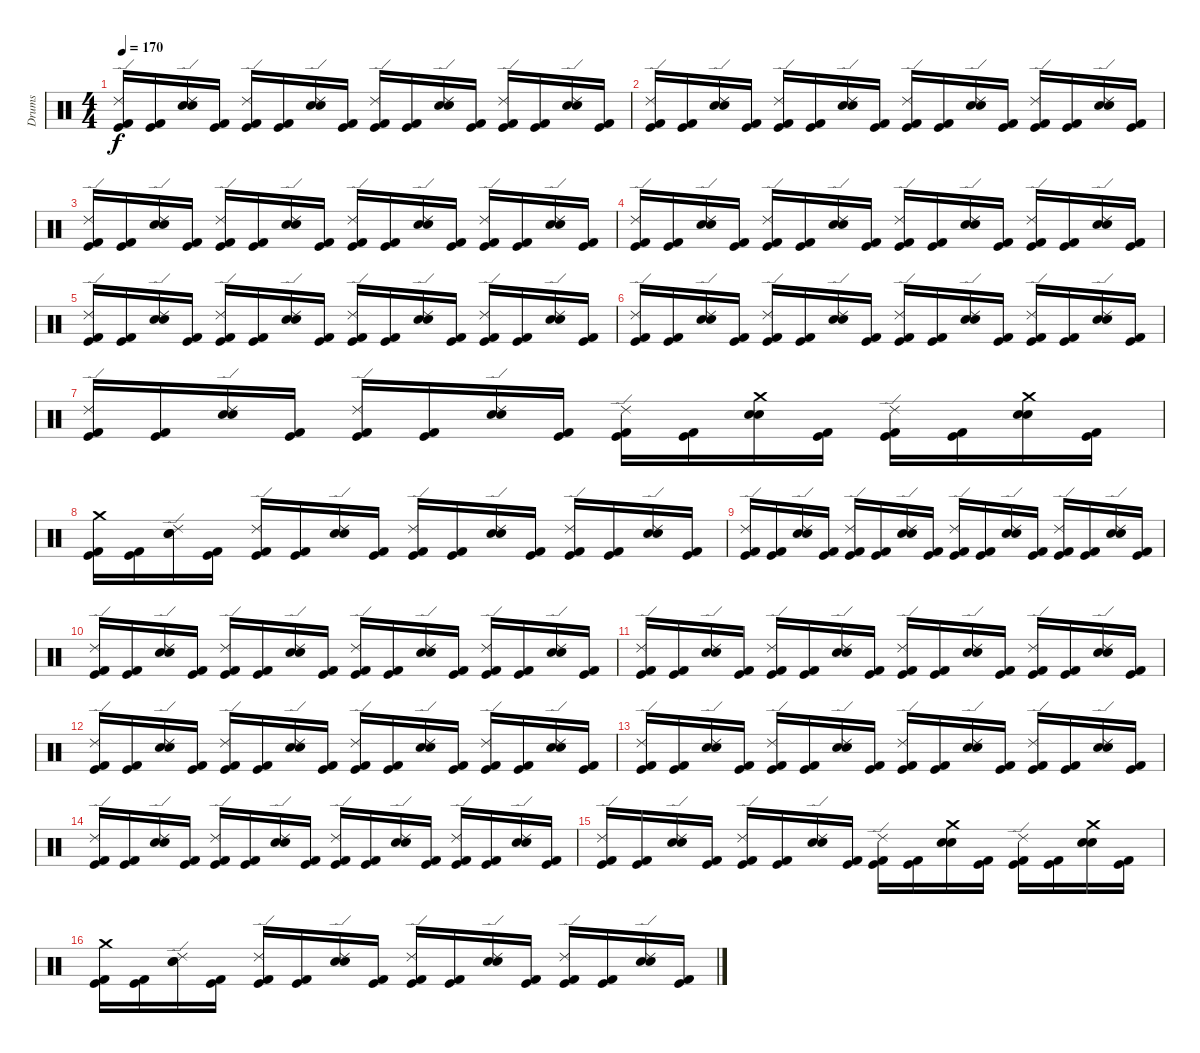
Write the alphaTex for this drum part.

\track ("Drums" "Drums") {instrument percussion}
\staff {score}
\articulation defaults
\ts (4 4)
\tempo 170
\clef neutral
\ks c
("Ride (edge) 2" "Kick (hit) 2" "Kick (hit)").16{dy f} ("Kick (hit) 2" "Kick (hit)").16 ("Electric Snare (hit)" "Snare (hit) 2" "Ride (edge) 2").16 ("Kick (hit) 2" "Kick (hit)").16 ("Ride (edge) 2" "Kick (hit) 2" "Kick (hit)").16 ("Kick (hit) 2" "Kick (hit)").16 ("Electric Snare (hit)" "Snare (hit) 2" "Ride (edge) 2").16 ("Kick (hit) 2" "Kick (hit)").16 ("Ride (edge) 2" "Kick (hit) 2" "Kick (hit)").16 ("Kick (hit) 2" "Kick (hit)").16 ("Electric Snare (hit)" "Snare (hit) 2" "Ride (edge) 2").16 ("Kick (hit) 2" "Kick (hit)").16 ("Ride (edge) 2" "Kick (hit) 2" "Kick (hit)").16 ("Kick (hit) 2" "Kick (hit)").16 ("Electric Snare (hit)" "Snare (hit) 2" "Ride (edge) 2").16 ("Kick (hit) 2" "Kick (hit)").16 |
("Ride (edge) 2" "Kick (hit) 2" "Kick (hit)").16 ("Kick (hit) 2" "Kick (hit)").16 ("Electric Snare (hit)" "Snare (hit) 2" "Ride (edge) 2").16 ("Kick (hit) 2" "Kick (hit)").16 ("Ride (edge) 2" "Kick (hit) 2" "Kick (hit)").16 ("Kick (hit) 2" "Kick (hit)").16 ("Electric Snare (hit)" "Snare (hit) 2" "Ride (edge) 2").16 ("Kick (hit) 2" "Kick (hit)").16 ("Ride (edge) 2" "Kick (hit) 2" "Kick (hit)").16 ("Kick (hit) 2" "Kick (hit)").16 ("Electric Snare (hit)" "Snare (hit) 2" "Ride (edge) 2").16 ("Kick (hit) 2" "Kick (hit)").16 ("Ride (edge) 2" "Kick (hit) 2" "Kick (hit)").16 ("Kick (hit) 2" "Kick (hit)").16 ("Electric Snare (hit)" "Snare (hit) 2" "Ride (edge) 2").16 ("Kick (hit) 2" "Kick (hit)").16 |
("Ride (edge) 2" "Kick (hit) 2" "Kick (hit)").16 ("Kick (hit) 2" "Kick (hit)").16 ("Electric Snare (hit)" "Snare (hit) 2" "Ride (edge) 2").16 ("Kick (hit) 2" "Kick (hit)").16 ("Ride (edge) 2" "Kick (hit) 2" "Kick (hit)").16 ("Kick (hit) 2" "Kick (hit)").16 ("Electric Snare (hit)" "Snare (hit) 2" "Ride (edge) 2").16 ("Kick (hit) 2" "Kick (hit)").16 ("Ride (edge) 2" "Kick (hit) 2" "Kick (hit)").16 ("Kick (hit) 2" "Kick (hit)").16 ("Electric Snare (hit)" "Snare (hit) 2" "Ride (edge) 2").16 ("Kick (hit) 2" "Kick (hit)").16 ("Ride (edge) 2" "Kick (hit) 2" "Kick (hit)").16 ("Kick (hit) 2" "Kick (hit)").16 ("Electric Snare (hit)" "Snare (hit) 2" "Ride (edge) 2").16 ("Kick (hit) 2" "Kick (hit)").16 |
("Ride (edge) 2" "Kick (hit) 2" "Kick (hit)").16 ("Kick (hit) 2" "Kick (hit)").16 ("Electric Snare (hit)" "Snare (hit) 2" "Ride (edge) 2").16 ("Kick (hit) 2" "Kick (hit)").16 ("Ride (edge) 2" "Kick (hit) 2" "Kick (hit)").16 ("Kick (hit) 2" "Kick (hit)").16 ("Electric Snare (hit)" "Snare (hit) 2" "Ride (edge) 2").16 ("Kick (hit) 2" "Kick (hit)").16 ("Ride (edge) 2" "Kick (hit) 2" "Kick (hit)").16 ("Kick (hit) 2" "Kick (hit)").16 ("Electric Snare (hit)" "Snare (hit) 2" "Ride (edge) 2").16 ("Kick (hit) 2" "Kick (hit)").16 ("Ride (edge) 2" "Kick (hit) 2" "Kick (hit)").16 ("Kick (hit) 2" "Kick (hit)").16 ("Electric Snare (hit)" "Snare (hit) 2" "Ride (edge) 2").16 ("Kick (hit) 2" "Kick (hit)").16 |
("Ride (edge) 2" "Kick (hit) 2" "Kick (hit)").16 ("Kick (hit) 2" "Kick (hit)").16 ("Electric Snare (hit)" "Snare (hit) 2" "Ride (edge) 2").16 ("Kick (hit) 2" "Kick (hit)").16 ("Ride (edge) 2" "Kick (hit) 2" "Kick (hit)").16 ("Kick (hit) 2" "Kick (hit)").16 ("Electric Snare (hit)" "Snare (hit) 2" "Ride (edge) 2").16 ("Kick (hit) 2" "Kick (hit)").16 ("Ride (edge) 2" "Kick (hit) 2" "Kick (hit)").16 ("Kick (hit) 2" "Kick (hit)").16 ("Electric Snare (hit)" "Snare (hit) 2" "Ride (edge) 2").16 ("Kick (hit) 2" "Kick (hit)").16 ("Ride (edge) 2" "Kick (hit) 2" "Kick (hit)").16 ("Kick (hit) 2" "Kick (hit)").16 ("Electric Snare (hit)" "Snare (hit) 2" "Ride (edge) 2").16 ("Kick (hit) 2" "Kick (hit)").16 |
("Ride (edge) 2" "Kick (hit) 2" "Kick (hit)").16 ("Kick (hit) 2" "Kick (hit)").16 ("Electric Snare (hit)" "Snare (hit) 2" "Ride (edge) 2").16 ("Kick (hit) 2" "Kick (hit)").16 ("Ride (edge) 2" "Kick (hit) 2" "Kick (hit)").16 ("Kick (hit) 2" "Kick (hit)").16 ("Electric Snare (hit)" "Snare (hit) 2" "Ride (edge) 2").16 ("Kick (hit) 2" "Kick (hit)").16 ("Ride (edge) 2" "Kick (hit) 2" "Kick (hit)").16 ("Kick (hit) 2" "Kick (hit)").16 ("Electric Snare (hit)" "Snare (hit) 2" "Ride (edge) 2").16 ("Kick (hit) 2" "Kick (hit)").16 ("Ride (edge) 2" "Kick (hit) 2" "Kick (hit)").16 ("Kick (hit) 2" "Kick (hit)").16 ("Electric Snare (hit)" "Snare (hit) 2" "Ride (edge) 2").16 ("Kick (hit) 2" "Kick (hit)").16 |
("Ride (edge) 2" "Kick (hit) 2" "Kick (hit)").16 ("Kick (hit) 2" "Kick (hit)").16 ("Electric Snare (hit)" "Snare (hit) 2" "Ride (edge) 2").16 ("Kick (hit) 2" "Kick (hit)").16 ("Ride (edge) 2" "Kick (hit) 2" "Kick (hit)").16 ("Kick (hit) 2" "Kick (hit)").16 ("Electric Snare (hit)" "Snare (hit) 2" "Ride (edge) 2").16 ("Kick (hit) 2" "Kick (hit)").16 ("Ride (edge) 2" "Kick (hit) 2" "Kick (hit)").16 ("Kick (hit) 2" "Kick (hit)").16 ("Crash medium (hit)" "Electric Snare (hit)" "Snare (hit) 2").16 ("Kick (hit) 2" "Kick (hit)").16 ("Ride (edge) 2" "Kick (hit) 2" "Kick (hit)").16 ("Kick (hit) 2" "Kick (hit)").16 ("Crash medium (hit)" "Electric Snare (hit)" "Snare (hit) 2").16 ("Kick (hit) 2" "Kick (hit)").16 |
("Crash medium (hit)" "Kick (hit) 2" "Kick (hit)").16 ("Kick (hit) 2" "Kick (hit)").16 ("Electric Snare (hit)" "Snare (hit) 2" "Ride (edge) 2").16 ("Kick (hit) 2" "Kick (hit)").16 ("Ride (edge) 2" "Kick (hit) 2" "Kick (hit)").16 ("Kick (hit) 2" "Kick (hit)").16 ("Electric Snare (hit)" "Snare (hit) 2" "Ride (edge) 2").16 ("Kick (hit) 2" "Kick (hit)").16 ("Ride (edge) 2" "Kick (hit) 2" "Kick (hit)").16 ("Kick (hit) 2" "Kick (hit)").16 ("Electric Snare (hit)" "Snare (hit) 2" "Ride (edge) 2").16 ("Kick (hit) 2" "Kick (hit)").16 ("Ride (edge) 2" "Kick (hit) 2" "Kick (hit)").16 ("Kick (hit) 2" "Kick (hit)").16 ("Electric Snare (hit)" "Snare (hit) 2" "Ride (edge) 2").16 ("Kick (hit) 2" "Kick (hit)").16 |
("Ride (edge) 2" "Kick (hit) 2" "Kick (hit)").16 ("Kick (hit) 2" "Kick (hit)").16 ("Electric Snare (hit)" "Snare (hit) 2" "Ride (edge) 2").16 ("Kick (hit) 2" "Kick (hit)").16 ("Ride (edge) 2" "Kick (hit) 2" "Kick (hit)").16 ("Kick (hit) 2" "Kick (hit)").16 ("Electric Snare (hit)" "Snare (hit) 2" "Ride (edge) 2").16 ("Kick (hit) 2" "Kick (hit)").16 ("Ride (edge) 2" "Kick (hit) 2" "Kick (hit)").16 ("Kick (hit) 2" "Kick (hit)").16 ("Electric Snare (hit)" "Snare (hit) 2" "Ride (edge) 2").16 ("Kick (hit) 2" "Kick (hit)").16 ("Ride (edge) 2" "Kick (hit) 2" "Kick (hit)").16 ("Kick (hit) 2" "Kick (hit)").16 ("Electric Snare (hit)" "Snare (hit) 2" "Ride (edge) 2").16 ("Kick (hit) 2" "Kick (hit)").16 |
("Ride (edge) 2" "Kick (hit) 2" "Kick (hit)").16 ("Kick (hit) 2" "Kick (hit)").16 ("Electric Snare (hit)" "Snare (hit) 2" "Ride (edge) 2").16 ("Kick (hit) 2" "Kick (hit)").16 ("Ride (edge) 2" "Kick (hit) 2" "Kick (hit)").16 ("Kick (hit) 2" "Kick (hit)").16 ("Electric Snare (hit)" "Snare (hit) 2" "Ride (edge) 2").16 ("Kick (hit) 2" "Kick (hit)").16 ("Ride (edge) 2" "Kick (hit) 2" "Kick (hit)").16 ("Kick (hit) 2" "Kick (hit)").16 ("Electric Snare (hit)" "Snare (hit) 2" "Ride (edge) 2").16 ("Kick (hit) 2" "Kick (hit)").16 ("Ride (edge) 2" "Kick (hit) 2" "Kick (hit)").16 ("Kick (hit) 2" "Kick (hit)").16 ("Electric Snare (hit)" "Snare (hit) 2" "Ride (edge) 2").16 ("Kick (hit) 2" "Kick (hit)").16 |
("Ride (edge) 2" "Kick (hit) 2" "Kick (hit)").16 ("Kick (hit) 2" "Kick (hit)").16 ("Electric Snare (hit)" "Snare (hit) 2" "Ride (edge) 2").16 ("Kick (hit) 2" "Kick (hit)").16 ("Ride (edge) 2" "Kick (hit) 2" "Kick (hit)").16 ("Kick (hit) 2" "Kick (hit)").16 ("Electric Snare (hit)" "Snare (hit) 2" "Ride (edge) 2").16 ("Kick (hit) 2" "Kick (hit)").16 ("Ride (edge) 2" "Kick (hit) 2" "Kick (hit)").16 ("Kick (hit) 2" "Kick (hit)").16 ("Electric Snare (hit)" "Snare (hit) 2" "Ride (edge) 2").16 ("Kick (hit) 2" "Kick (hit)").16 ("Ride (edge) 2" "Kick (hit) 2" "Kick (hit)").16 ("Kick (hit) 2" "Kick (hit)").16 ("Electric Snare (hit)" "Snare (hit) 2" "Ride (edge) 2").16 ("Kick (hit) 2" "Kick (hit)").16 |
("Ride (edge) 2" "Kick (hit) 2" "Kick (hit)").16 ("Kick (hit) 2" "Kick (hit)").16 ("Electric Snare (hit)" "Snare (hit) 2" "Ride (edge) 2").16 ("Kick (hit) 2" "Kick (hit)").16 ("Ride (edge) 2" "Kick (hit) 2" "Kick (hit)").16 ("Kick (hit) 2" "Kick (hit)").16 ("Electric Snare (hit)" "Snare (hit) 2" "Ride (edge) 2").16 ("Kick (hit) 2" "Kick (hit)").16 ("Ride (edge) 2" "Kick (hit) 2" "Kick (hit)").16 ("Kick (hit) 2" "Kick (hit)").16 ("Electric Snare (hit)" "Snare (hit) 2" "Ride (edge) 2").16 ("Kick (hit) 2" "Kick (hit)").16 ("Ride (edge) 2" "Kick (hit) 2" "Kick (hit)").16 ("Kick (hit) 2" "Kick (hit)").16 ("Electric Snare (hit)" "Snare (hit) 2" "Ride (edge) 2").16 ("Kick (hit) 2" "Kick (hit)").16 |
("Ride (edge) 2" "Kick (hit) 2" "Kick (hit)").16 ("Kick (hit) 2" "Kick (hit)").16 ("Electric Snare (hit)" "Snare (hit) 2" "Ride (edge) 2").16 ("Kick (hit) 2" "Kick (hit)").16 ("Ride (edge) 2" "Kick (hit) 2" "Kick (hit)").16 ("Kick (hit) 2" "Kick (hit)").16 ("Electric Snare (hit)" "Snare (hit) 2" "Ride (edge) 2").16 ("Kick (hit) 2" "Kick (hit)").16 ("Ride (edge) 2" "Kick (hit) 2" "Kick (hit)").16 ("Kick (hit) 2" "Kick (hit)").16 ("Electric Snare (hit)" "Snare (hit) 2" "Ride (edge) 2").16 ("Kick (hit) 2" "Kick (hit)").16 ("Ride (edge) 2" "Kick (hit) 2" "Kick (hit)").16 ("Kick (hit) 2" "Kick (hit)").16 ("Electric Snare (hit)" "Snare (hit) 2" "Ride (edge) 2").16 ("Kick (hit) 2" "Kick (hit)").16 |
("Ride (edge) 2" "Kick (hit) 2" "Kick (hit)").16 ("Kick (hit) 2" "Kick (hit)").16 ("Electric Snare (hit)" "Snare (hit) 2" "Ride (edge) 2").16 ("Kick (hit) 2" "Kick (hit)").16 ("Ride (edge) 2" "Kick (hit) 2" "Kick (hit)").16 ("Kick (hit) 2" "Kick (hit)").16 ("Electric Snare (hit)" "Snare (hit) 2" "Ride (edge) 2").16 ("Kick (hit) 2" "Kick (hit)").16 ("Ride (edge) 2" "Kick (hit) 2" "Kick (hit)").16 ("Kick (hit) 2" "Kick (hit)").16 ("Electric Snare (hit)" "Snare (hit) 2" "Ride (edge) 2").16 ("Kick (hit) 2" "Kick (hit)").16 ("Ride (edge) 2" "Kick (hit) 2" "Kick (hit)").16 ("Kick (hit) 2" "Kick (hit)").16 ("Electric Snare (hit)" "Snare (hit) 2" "Ride (edge) 2").16 ("Kick (hit) 2" "Kick (hit)").16 |
("Ride (edge) 2" "Kick (hit) 2" "Kick (hit)").16 ("Kick (hit) 2" "Kick (hit)").16 ("Electric Snare (hit)" "Snare (hit) 2" "Ride (edge) 2").16 ("Kick (hit) 2" "Kick (hit)").16 ("Ride (edge) 2" "Kick (hit) 2" "Kick (hit)").16 ("Kick (hit) 2" "Kick (hit)").16 ("Electric Snare (hit)" "Snare (hit) 2" "Ride (edge) 2").16 ("Kick (hit) 2" "Kick (hit)").16 ("Ride (edge) 2" "Kick (hit) 2" "Kick (hit)").16 ("Kick (hit) 2" "Kick (hit)").16 ("Crash medium (hit)" "Electric Snare (hit)" "Snare (hit) 2").16 ("Kick (hit) 2" "Kick (hit)").16 ("Ride (edge) 2" "Kick (hit) 2" "Kick (hit)").16 ("Kick (hit) 2" "Kick (hit)").16 ("Crash medium (hit)" "Electric Snare (hit)" "Snare (hit) 2").16 ("Kick (hit) 2" "Kick (hit)").16 |
("Crash medium (hit)" "Kick (hit) 2" "Kick (hit)").16 ("Kick (hit) 2" "Kick (hit)").16 ("Electric Snare (hit)" "Snare (hit) 2" "Ride (edge) 2").16 ("Kick (hit) 2" "Kick (hit)").16 ("Ride (edge) 2" "Kick (hit) 2" "Kick (hit)").16 ("Kick (hit) 2" "Kick (hit)").16 ("Electric Snare (hit)" "Snare (hit) 2" "Ride (edge) 2").16 ("Kick (hit) 2" "Kick (hit)").16 ("Ride (edge) 2" "Kick (hit) 2" "Kick (hit)").16 ("Kick (hit) 2" "Kick (hit)").16 ("Electric Snare (hit)" "Snare (hit) 2" "Ride (edge) 2").16 ("Kick (hit) 2" "Kick (hit)").16 ("Ride (edge) 2" "Kick (hit) 2" "Kick (hit)").16 ("Kick (hit) 2" "Kick (hit)").16 ("Electric Snare (hit)" "Snare (hit) 2" "Ride (edge) 2").16 ("Kick (hit) 2" "Kick (hit)").16
